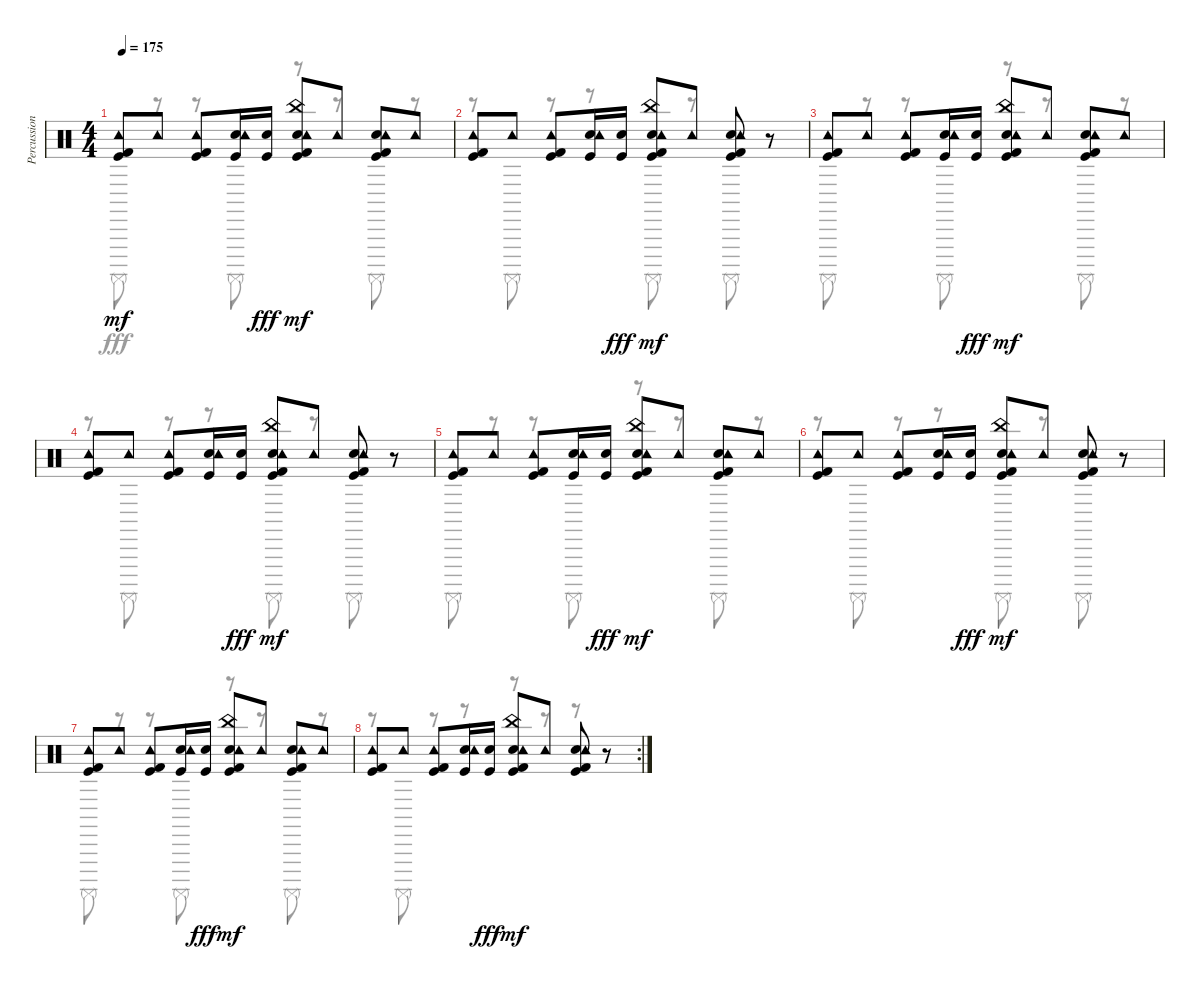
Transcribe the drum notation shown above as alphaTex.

\track ("Percussion" "Percussion") {instrument percussion}
\staff {score}
\articulation defaults
\voice
\ts (4 4)
\tempo 175
\clef neutral
\ks c
("Kick (hit)" "Kick (hit) 2" "Tambourine (hit)").8{dy mf} "Tambourine (hit)".8 ("Kick (hit)" "Kick (hit) 2" "Tambourine (hit)").8 ("Kick (hit)" "Electric Snare (hit)" "Tambourine (hit)").16 ("Kick (hit)" "Electric Snare (hit)").16{dy fff} ("Kick (hit)" "Kick (hit) 2" "Electric Snare (hit)" "China (hit)" "Tambourine (hit)").8{dy mf} "Tambourine (hit)".8 ("Kick (hit)" "Kick (hit) 2" "Electric Snare (hit)" "Tambourine (hit)").8 "Tambourine (hit)".8 |
("Kick (hit)" "Kick (hit) 2" "Tambourine (hit)").8 "Tambourine (hit)".8 ("Kick (hit)" "Kick (hit) 2" "Tambourine (hit)").8 ("Kick (hit)" "Electric Snare (hit)" "Tambourine (hit)").16 ("Kick (hit)" "Electric Snare (hit)").16{dy fff} ("Kick (hit)" "Kick (hit) 2" "Electric Snare (hit)" "China (hit)" "Tambourine (hit)").8{dy mf} "Tambourine (hit)".8 ("Kick (hit)" "Kick (hit) 2" "Electric Snare (hit)" "Tambourine (hit)").8 r.8 |
("Kick (hit)" "Kick (hit) 2" "Tambourine (hit)").8 "Tambourine (hit)".8 ("Kick (hit)" "Kick (hit) 2" "Tambourine (hit)").8 ("Kick (hit)" "Electric Snare (hit)" "Tambourine (hit)").16 ("Kick (hit)" "Electric Snare (hit)").16{dy fff} ("Kick (hit)" "Kick (hit) 2" "Electric Snare (hit)" "China (hit)" "Tambourine (hit)").8{dy mf} "Tambourine (hit)".8 ("Kick (hit)" "Kick (hit) 2" "Electric Snare (hit)" "Tambourine (hit)").8 "Tambourine (hit)".8 |
("Kick (hit)" "Kick (hit) 2" "Tambourine (hit)").8 "Tambourine (hit)".8 ("Kick (hit)" "Kick (hit) 2" "Tambourine (hit)").8 ("Kick (hit)" "Electric Snare (hit)" "Tambourine (hit)").16 ("Kick (hit)" "Electric Snare (hit)").16{dy fff} ("Kick (hit)" "Kick (hit) 2" "Electric Snare (hit)" "China (hit)" "Tambourine (hit)").8{dy mf} "Tambourine (hit)".8 ("Kick (hit)" "Kick (hit) 2" "Electric Snare (hit)" "Tambourine (hit)").8 r.8 |
("Kick (hit)" "Kick (hit) 2" "Tambourine (hit)").8 "Tambourine (hit)".8 ("Kick (hit)" "Kick (hit) 2" "Tambourine (hit)").8 ("Kick (hit)" "Electric Snare (hit)" "Tambourine (hit)").16 ("Kick (hit)" "Electric Snare (hit)").16{dy fff} ("Kick (hit)" "Kick (hit) 2" "Electric Snare (hit)" "China (hit)" "Tambourine (hit)").8{dy mf} "Tambourine (hit)".8 ("Kick (hit)" "Kick (hit) 2" "Electric Snare (hit)" "Tambourine (hit)").8 "Tambourine (hit)".8 |
("Kick (hit)" "Kick (hit) 2" "Tambourine (hit)").8 "Tambourine (hit)".8 ("Kick (hit)" "Kick (hit) 2" "Tambourine (hit)").8 ("Kick (hit)" "Electric Snare (hit)" "Tambourine (hit)").16 ("Kick (hit)" "Electric Snare (hit)").16{dy fff} ("Kick (hit)" "Kick (hit) 2" "Electric Snare (hit)" "China (hit)" "Tambourine (hit)").8{dy mf} "Tambourine (hit)".8 ("Kick (hit)" "Kick (hit) 2" "Electric Snare (hit)" "Tambourine (hit)").8 r.8 |
("Kick (hit)" "Kick (hit) 2" "Tambourine (hit)").8 "Tambourine (hit)".8 ("Kick (hit)" "Kick (hit) 2" "Tambourine (hit)").8 ("Kick (hit)" "Electric Snare (hit)" "Tambourine (hit)").16 ("Kick (hit)" "Electric Snare (hit)").16{dy fff} ("Kick (hit)" "Kick (hit) 2" "Electric Snare (hit)" "China (hit)" "Tambourine (hit)").8{dy mf} "Tambourine (hit)".8 ("Kick (hit)" "Kick (hit) 2" "Electric Snare (hit)" "Tambourine (hit)").8 "Tambourine (hit)".8 |
\rc 2
("Kick (hit)" "Kick (hit) 2" "Tambourine (hit)").8 "Tambourine (hit)".8 ("Kick (hit)" "Kick (hit) 2" "Tambourine (hit)").8 ("Kick (hit)" "Electric Snare (hit)" "Tambourine (hit)").16 ("Kick (hit)" "Electric Snare (hit)").16{dy fff} ("Kick (hit)" "Kick (hit) 2" "Electric Snare (hit)" "China (hit)" "Tambourine (hit)").8{dy mf} "Tambourine (hit)".8 ("Kick (hit)" "Kick (hit) 2" "Electric Snare (hit)" "Tambourine (hit)").8 r.8
\voice
\clef neutral
\ottava regular
\simile none
\ks c "Surdo (mute)".8{dy fff}
r.8 r.8 "Surdo (mute)".8 r.8 r.8 "Surdo (mute)".8 r.8 |
r.8 "Surdo (mute)".8 r.8 r.8 "Surdo (mute)".8 r.8 "Surdo (mute)".8 r.8 |
"Surdo (mute)".8 r.8 r.8 "Surdo (mute)".8 r.8 r.8 "Surdo (mute)".8 r.8 |
r.8 "Surdo (mute)".8 r.8 r.8 "Surdo (mute)".8 r.8 "Surdo (mute)".8 r.8 |
"Surdo (mute)".8 r.8 r.8 "Surdo (mute)".8 r.8 r.8 "Surdo (mute)".8 r.8 |
r.8 "Surdo (mute)".8 r.8 r.8 "Surdo (mute)".8 r.8 "Surdo (mute)".8 r.8 |
"Surdo (mute)".8 r.8 r.8 "Surdo (mute)".8 r.8 r.8 "Surdo (mute)".8 r.8 |
r.8 "Surdo (mute)".8 r.8 r.8 r.8 r.8 r.8 r.8
